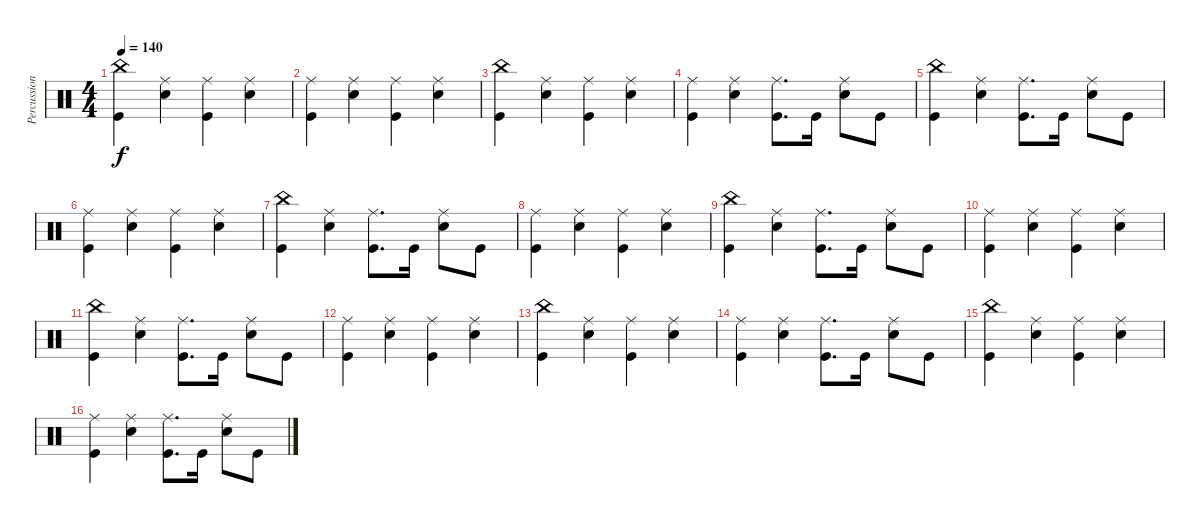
\track ("Percussion" "Percussion") {instrument percussion}
\staff {score}
\articulation defaults
\ts (4 4)
\tempo 140
\clef neutral
\ks c
("China (hit)" "Kick (hit)").4{dy f} ("Ride (middle)" "Electric Snare (hit)").4 ("Ride (middle)" "Kick (hit)").4 ("Ride (middle)" "Electric Snare (hit)").4 |
("Ride (middle)" "Kick (hit)").4 ("Ride (middle)" "Electric Snare (hit)").4 ("Ride (middle)" "Kick (hit)").4 ("Ride (middle)" "Electric Snare (hit)").4 |
("China (hit)" "Kick (hit)").4 ("Ride (middle)" "Electric Snare (hit)").4 ("Ride (middle)" "Kick (hit)").4 ("Ride (middle)" "Electric Snare (hit)").4 |
("Ride (middle)" "Kick (hit)").4 ("Ride (middle)" "Electric Snare (hit)").4 ("Ride (middle)" "Kick (hit)").8{d} "Kick (hit)".16 ("Ride (middle)" "Electric Snare (hit)").8 "Kick (hit)".8 |
("China (hit)" "Kick (hit)").4 ("Ride (middle)" "Electric Snare (hit)").4 ("Ride (middle)" "Kick (hit)").8{d} "Kick (hit)".16 ("Ride (middle)" "Electric Snare (hit)").8 "Kick (hit)".8 |
("Ride (middle)" "Kick (hit)").4 ("Ride (middle)" "Electric Snare (hit)").4 ("Ride (middle)" "Kick (hit)").4 ("Ride (middle)" "Electric Snare (hit)").4 |
("China (hit)" "Kick (hit)").4 ("Ride (middle)" "Electric Snare (hit)").4 ("Ride (middle)" "Kick (hit)").8{d} "Kick (hit)".16 ("Ride (middle)" "Electric Snare (hit)").8 "Kick (hit)".8 |
("Ride (middle)" "Kick (hit)").4 ("Ride (middle)" "Electric Snare (hit)").4 ("Ride (middle)" "Kick (hit)").4 ("Ride (middle)" "Electric Snare (hit)").4 |
("China (hit)" "Kick (hit)").4 ("Ride (middle)" "Electric Snare (hit)").4 ("Ride (middle)" "Kick (hit)").8{d} "Kick (hit)".16 ("Ride (middle)" "Electric Snare (hit)").8 "Kick (hit)".8 |
("Ride (middle)" "Kick (hit)").4 ("Ride (middle)" "Electric Snare (hit)").4 ("Ride (middle)" "Kick (hit)").4 ("Ride (middle)" "Electric Snare (hit)").4 |
("China (hit)" "Kick (hit)").4 ("Ride (middle)" "Electric Snare (hit)").4 ("Ride (middle)" "Kick (hit)").8{d} "Kick (hit)".16 ("Ride (middle)" "Electric Snare (hit)").8 "Kick (hit)".8 |
("Ride (middle)" "Kick (hit)").4 ("Ride (middle)" "Electric Snare (hit)").4 ("Ride (middle)" "Kick (hit)").4 ("Ride (middle)" "Electric Snare (hit)").4 |
("China (hit)" "Kick (hit)").4 ("Ride (middle)" "Electric Snare (hit)").4 ("Ride (middle)" "Kick (hit)").4 ("Ride (middle)" "Electric Snare (hit)").4 |
("Ride (middle)" "Kick (hit)").4 ("Ride (middle)" "Electric Snare (hit)").4 ("Ride (middle)" "Kick (hit)").8{d} "Kick (hit)".16 ("Ride (middle)" "Electric Snare (hit)").8 "Kick (hit)".8 |
("China (hit)" "Kick (hit)").4 ("Ride (middle)" "Electric Snare (hit)").4 ("Ride (middle)" "Kick (hit)").4 ("Ride (middle)" "Electric Snare (hit)").4 |
("Ride (middle)" "Kick (hit)").4 ("Ride (middle)" "Electric Snare (hit)").4 ("Ride (middle)" "Kick (hit)").8{d} "Kick (hit)".16 ("Ride (middle)" "Electric Snare (hit)").8 "Kick (hit)".8
